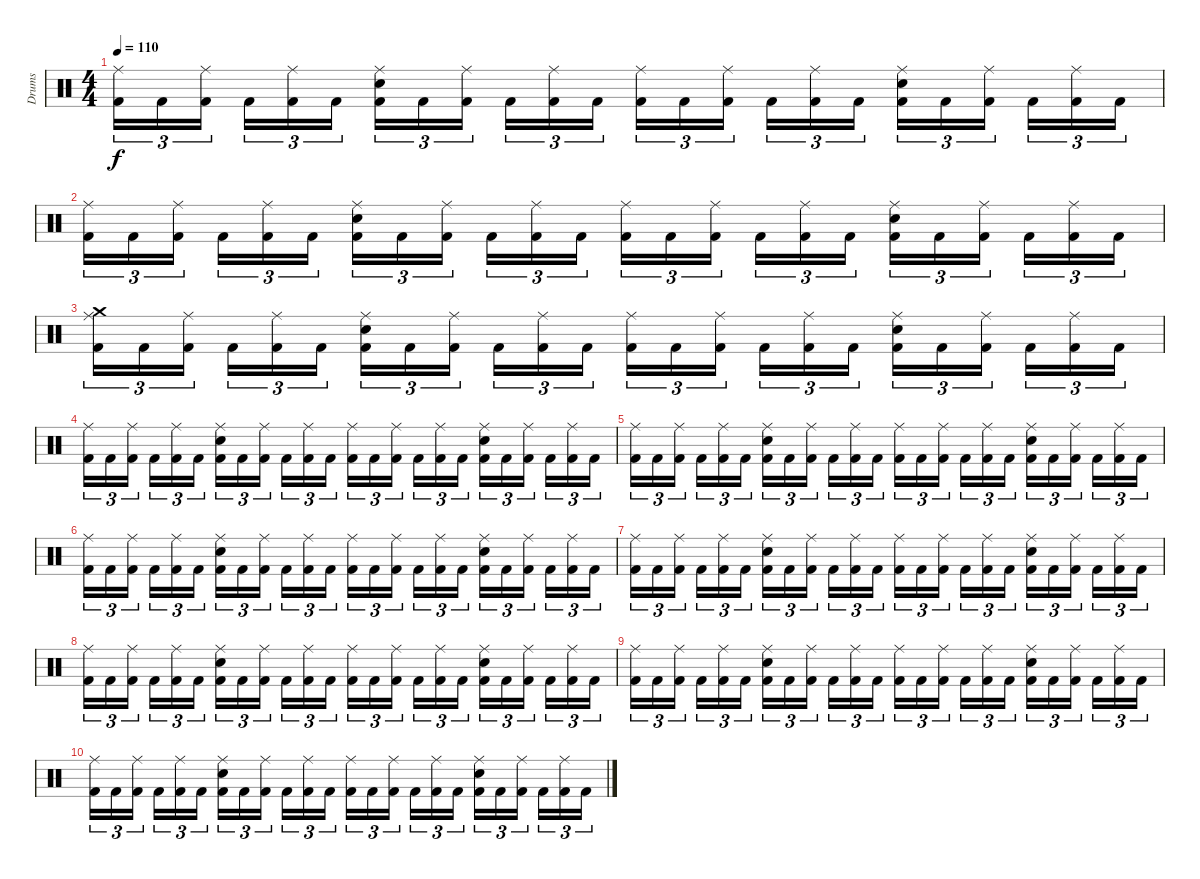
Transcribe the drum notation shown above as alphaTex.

\track ("Drums" "Drums") {instrument percussion}
\staff {score}
\articulation defaults
\ts (4 4)
\tempo 110
\clef neutral
\ks c
("Kick (hit) 2" "Ride (middle)").16{tu (3 2) dy f volume 8} "Kick (hit) 2".16{tu (3 2)} ("Kick (hit) 2" "Ride (middle)").16{tu (3 2)} "Kick (hit) 2".16{tu (3 2)} ("Kick (hit) 2" "Ride (middle)").16{tu (3 2)} "Kick (hit) 2".16{tu (3 2)} ("Kick (hit) 2" "Snare (hit) 2" "Ride (middle)").16{tu (3 2)} "Kick (hit) 2".16{tu (3 2)} ("Kick (hit) 2" "Ride (middle)").16{tu (3 2)} "Kick (hit) 2".16{tu (3 2)} ("Kick (hit) 2" "Ride (middle)").16{tu (3 2)} "Kick (hit) 2".16{tu (3 2)} ("Kick (hit) 2" "Ride (middle)").16{tu (3 2)} "Kick (hit) 2".16{tu (3 2)} ("Kick (hit) 2" "Ride (middle)").16{tu (3 2)} "Kick (hit) 2".16{tu (3 2)} ("Kick (hit) 2" "Ride (middle)").16{tu (3 2)} "Kick (hit) 2".16{tu (3 2)} ("Kick (hit) 2" "Snare (hit) 2" "Ride (middle)").16{tu (3 2)} "Kick (hit) 2".16{tu (3 2)} ("Kick (hit) 2" "Ride (middle)").16{tu (3 2)} "Kick (hit) 2".16{tu (3 2)} ("Kick (hit) 2" "Ride (middle)").16{tu (3 2)} "Kick (hit) 2".16{tu (3 2)} |
("Kick (hit) 2" "Ride (middle)").16{tu (3 2)} "Kick (hit) 2".16{tu (3 2)} ("Kick (hit) 2" "Ride (middle)").16{tu (3 2)} "Kick (hit) 2".16{tu (3 2)} ("Kick (hit) 2" "Ride (middle)").16{tu (3 2)} "Kick (hit) 2".16{tu (3 2)} ("Kick (hit) 2" "Snare (hit) 2" "Ride (middle)").16{tu (3 2)} "Kick (hit) 2".16{tu (3 2)} ("Kick (hit) 2" "Ride (middle)").16{tu (3 2)} "Kick (hit) 2".16{tu (3 2)} ("Kick (hit) 2" "Ride (middle)").16{tu (3 2)} "Kick (hit) 2".16{tu (3 2)} ("Kick (hit) 2" "Ride (middle)").16{tu (3 2)} "Kick (hit) 2".16{tu (3 2)} ("Kick (hit) 2" "Ride (middle)").16{tu (3 2)} "Kick (hit) 2".16{tu (3 2)} ("Kick (hit) 2" "Ride (middle)").16{tu (3 2)} "Kick (hit) 2".16{tu (3 2)} ("Kick (hit) 2" "Snare (hit) 2" "Ride (middle)").16{tu (3 2)} "Kick (hit) 2".16{tu (3 2)} ("Kick (hit) 2" "Ride (middle)").16{tu (3 2)} "Kick (hit) 2".16{tu (3 2)} ("Kick (hit) 2" "Ride (middle)").16{tu (3 2)} "Kick (hit) 2".16{tu (3 2)} |
("Kick (hit) 2" "Ride (middle)" "Crash medium (hit)").16{tu (3 2) volume 6} "Kick (hit) 2".16{tu (3 2)} ("Kick (hit) 2" "Ride (middle)").16{tu (3 2)} "Kick (hit) 2".16{tu (3 2)} ("Kick (hit) 2" "Ride (middle)").16{tu (3 2)} "Kick (hit) 2".16{tu (3 2)} ("Kick (hit) 2" "Snare (hit) 2" "Ride (middle)").16{tu (3 2)} "Kick (hit) 2".16{tu (3 2)} ("Kick (hit) 2" "Ride (middle)").16{tu (3 2)} "Kick (hit) 2".16{tu (3 2)} ("Kick (hit) 2" "Ride (middle)").16{tu (3 2)} "Kick (hit) 2".16{tu (3 2)} ("Kick (hit) 2" "Ride (middle)").16{tu (3 2)} "Kick (hit) 2".16{tu (3 2)} ("Kick (hit) 2" "Ride (middle)").16{tu (3 2)} "Kick (hit) 2".16{tu (3 2)} ("Kick (hit) 2" "Ride (middle)").16{tu (3 2)} "Kick (hit) 2".16{tu (3 2)} ("Kick (hit) 2" "Snare (hit) 2" "Ride (middle)").16{tu (3 2)} "Kick (hit) 2".16{tu (3 2)} ("Kick (hit) 2" "Ride (middle)").16{tu (3 2)} "Kick (hit) 2".16{tu (3 2)} ("Kick (hit) 2" "Ride (middle)").16{tu (3 2)} "Kick (hit) 2".16{tu (3 2)} |
("Kick (hit) 2" "Ride (middle)").16{tu (3 2)} "Kick (hit) 2".16{tu (3 2)} ("Kick (hit) 2" "Ride (middle)").16{tu (3 2)} "Kick (hit) 2".16{tu (3 2)} ("Kick (hit) 2" "Ride (middle)").16{tu (3 2)} "Kick (hit) 2".16{tu (3 2)} ("Kick (hit) 2" "Snare (hit) 2" "Ride (middle)").16{tu (3 2)} "Kick (hit) 2".16{tu (3 2)} ("Kick (hit) 2" "Ride (middle)").16{tu (3 2)} "Kick (hit) 2".16{tu (3 2)} ("Kick (hit) 2" "Ride (middle)").16{tu (3 2)} "Kick (hit) 2".16{tu (3 2)} ("Kick (hit) 2" "Ride (middle)").16{tu (3 2)} "Kick (hit) 2".16{tu (3 2)} ("Kick (hit) 2" "Ride (middle)").16{tu (3 2)} "Kick (hit) 2".16{tu (3 2)} ("Kick (hit) 2" "Ride (middle)").16{tu (3 2)} "Kick (hit) 2".16{tu (3 2)} ("Kick (hit) 2" "Snare (hit) 2" "Ride (middle)").16{tu (3 2)} "Kick (hit) 2".16{tu (3 2)} ("Kick (hit) 2" "Ride (middle)").16{tu (3 2)} "Kick (hit) 2".16{tu (3 2)} ("Kick (hit) 2" "Ride (middle)").16{tu (3 2)} "Kick (hit) 2".16{tu (3 2)} |
("Kick (hit) 2" "Ride (middle)").16{tu (3 2) volume 4} "Kick (hit) 2".16{tu (3 2)} ("Kick (hit) 2" "Ride (middle)").16{tu (3 2)} "Kick (hit) 2".16{tu (3 2)} ("Kick (hit) 2" "Ride (middle)").16{tu (3 2)} "Kick (hit) 2".16{tu (3 2)} ("Kick (hit) 2" "Snare (hit) 2" "Ride (middle)").16{tu (3 2)} "Kick (hit) 2".16{tu (3 2)} ("Kick (hit) 2" "Ride (middle)").16{tu (3 2)} "Kick (hit) 2".16{tu (3 2)} ("Kick (hit) 2" "Ride (middle)").16{tu (3 2)} "Kick (hit) 2".16{tu (3 2)} ("Kick (hit) 2" "Ride (middle)").16{tu (3 2)} "Kick (hit) 2".16{tu (3 2)} ("Kick (hit) 2" "Ride (middle)").16{tu (3 2)} "Kick (hit) 2".16{tu (3 2)} ("Kick (hit) 2" "Ride (middle)").16{tu (3 2)} "Kick (hit) 2".16{tu (3 2)} ("Kick (hit) 2" "Snare (hit) 2" "Ride (middle)").16{tu (3 2)} "Kick (hit) 2".16{tu (3 2)} ("Kick (hit) 2" "Ride (middle)").16{tu (3 2)} "Kick (hit) 2".16{tu (3 2)} ("Kick (hit) 2" "Ride (middle)").16{tu (3 2)} "Kick (hit) 2".16{tu (3 2)} |
("Kick (hit) 2" "Ride (middle)").16{tu (3 2)} "Kick (hit) 2".16{tu (3 2)} ("Kick (hit) 2" "Ride (middle)").16{tu (3 2)} "Kick (hit) 2".16{tu (3 2)} ("Kick (hit) 2" "Ride (middle)").16{tu (3 2)} "Kick (hit) 2".16{tu (3 2)} ("Kick (hit) 2" "Snare (hit) 2" "Ride (middle)").16{tu (3 2)} "Kick (hit) 2".16{tu (3 2)} ("Kick (hit) 2" "Ride (middle)").16{tu (3 2)} "Kick (hit) 2".16{tu (3 2)} ("Kick (hit) 2" "Ride (middle)").16{tu (3 2)} "Kick (hit) 2".16{tu (3 2)} ("Kick (hit) 2" "Ride (middle)").16{tu (3 2)} "Kick (hit) 2".16{tu (3 2)} ("Kick (hit) 2" "Ride (middle)").16{tu (3 2)} "Kick (hit) 2".16{tu (3 2)} ("Kick (hit) 2" "Ride (middle)").16{tu (3 2)} "Kick (hit) 2".16{tu (3 2)} ("Kick (hit) 2" "Snare (hit) 2" "Ride (middle)").16{tu (3 2)} "Kick (hit) 2".16{tu (3 2)} ("Kick (hit) 2" "Ride (middle)").16{tu (3 2)} "Kick (hit) 2".16{tu (3 2)} ("Kick (hit) 2" "Ride (middle)").16{tu (3 2)} "Kick (hit) 2".16{tu (3 2)} |
("Kick (hit) 2" "Ride (middle)").16{tu (3 2) volume 2} "Kick (hit) 2".16{tu (3 2)} ("Kick (hit) 2" "Ride (middle)").16{tu (3 2)} "Kick (hit) 2".16{tu (3 2)} ("Kick (hit) 2" "Ride (middle)").16{tu (3 2)} "Kick (hit) 2".16{tu (3 2)} ("Kick (hit) 2" "Snare (hit) 2" "Ride (middle)").16{tu (3 2)} "Kick (hit) 2".16{tu (3 2)} ("Kick (hit) 2" "Ride (middle)").16{tu (3 2)} "Kick (hit) 2".16{tu (3 2)} ("Kick (hit) 2" "Ride (middle)").16{tu (3 2)} "Kick (hit) 2".16{tu (3 2)} ("Kick (hit) 2" "Ride (middle)").16{tu (3 2)} "Kick (hit) 2".16{tu (3 2)} ("Kick (hit) 2" "Ride (middle)").16{tu (3 2)} "Kick (hit) 2".16{tu (3 2)} ("Kick (hit) 2" "Ride (middle)").16{tu (3 2)} "Kick (hit) 2".16{tu (3 2)} ("Kick (hit) 2" "Snare (hit) 2" "Ride (middle)").16{tu (3 2)} "Kick (hit) 2".16{tu (3 2)} ("Kick (hit) 2" "Ride (middle)").16{tu (3 2)} "Kick (hit) 2".16{tu (3 2)} ("Kick (hit) 2" "Ride (middle)").16{tu (3 2)} "Kick (hit) 2".16{tu (3 2)} |
("Kick (hit) 2" "Ride (middle)").16{tu (3 2)} "Kick (hit) 2".16{tu (3 2)} ("Kick (hit) 2" "Ride (middle)").16{tu (3 2)} "Kick (hit) 2".16{tu (3 2)} ("Kick (hit) 2" "Ride (middle)").16{tu (3 2)} "Kick (hit) 2".16{tu (3 2)} ("Kick (hit) 2" "Snare (hit) 2" "Ride (middle)").16{tu (3 2)} "Kick (hit) 2".16{tu (3 2)} ("Kick (hit) 2" "Ride (middle)").16{tu (3 2)} "Kick (hit) 2".16{tu (3 2)} ("Kick (hit) 2" "Ride (middle)").16{tu (3 2)} "Kick (hit) 2".16{tu (3 2)} ("Kick (hit) 2" "Ride (middle)").16{tu (3 2)} "Kick (hit) 2".16{tu (3 2)} ("Kick (hit) 2" "Ride (middle)").16{tu (3 2)} "Kick (hit) 2".16{tu (3 2)} ("Kick (hit) 2" "Ride (middle)").16{tu (3 2)} "Kick (hit) 2".16{tu (3 2)} ("Kick (hit) 2" "Snare (hit) 2" "Ride (middle)").16{tu (3 2)} "Kick (hit) 2".16{tu (3 2)} ("Kick (hit) 2" "Ride (middle)").16{tu (3 2)} "Kick (hit) 2".16{tu (3 2)} ("Kick (hit) 2" "Ride (middle)").16{tu (3 2)} "Kick (hit) 2".16{tu (3 2)} |
("Kick (hit) 2" "Ride (middle)").16{tu (3 2) volume 0} "Kick (hit) 2".16{tu (3 2)} ("Kick (hit) 2" "Ride (middle)").16{tu (3 2)} "Kick (hit) 2".16{tu (3 2)} ("Kick (hit) 2" "Ride (middle)").16{tu (3 2)} "Kick (hit) 2".16{tu (3 2)} ("Kick (hit) 2" "Snare (hit) 2" "Ride (middle)").16{tu (3 2)} "Kick (hit) 2".16{tu (3 2)} ("Kick (hit) 2" "Ride (middle)").16{tu (3 2)} "Kick (hit) 2".16{tu (3 2)} ("Kick (hit) 2" "Ride (middle)").16{tu (3 2)} "Kick (hit) 2".16{tu (3 2)} ("Kick (hit) 2" "Ride (middle)").16{tu (3 2)} "Kick (hit) 2".16{tu (3 2)} ("Kick (hit) 2" "Ride (middle)").16{tu (3 2)} "Kick (hit) 2".16{tu (3 2)} ("Kick (hit) 2" "Ride (middle)").16{tu (3 2)} "Kick (hit) 2".16{tu (3 2)} ("Kick (hit) 2" "Snare (hit) 2" "Ride (middle)").16{tu (3 2)} "Kick (hit) 2".16{tu (3 2)} ("Kick (hit) 2" "Ride (middle)").16{tu (3 2)} "Kick (hit) 2".16{tu (3 2)} ("Kick (hit) 2" "Ride (middle)").16{tu (3 2)} "Kick (hit) 2".16{tu (3 2)} |
("Kick (hit) 2" "Ride (middle)").16{tu (3 2)} "Kick (hit) 2".16{tu (3 2)} ("Kick (hit) 2" "Ride (middle)").16{tu (3 2)} "Kick (hit) 2".16{tu (3 2)} ("Kick (hit) 2" "Ride (middle)").16{tu (3 2)} "Kick (hit) 2".16{tu (3 2)} ("Kick (hit) 2" "Snare (hit) 2" "Ride (middle)").16{tu (3 2)} "Kick (hit) 2".16{tu (3 2)} ("Kick (hit) 2" "Ride (middle)").16{tu (3 2)} "Kick (hit) 2".16{tu (3 2)} ("Kick (hit) 2" "Ride (middle)").16{tu (3 2)} "Kick (hit) 2".16{tu (3 2)} ("Kick (hit) 2" "Ride (middle)").16{tu (3 2)} "Kick (hit) 2".16{tu (3 2)} ("Kick (hit) 2" "Ride (middle)").16{tu (3 2)} "Kick (hit) 2".16{tu (3 2)} ("Kick (hit) 2" "Ride (middle)").16{tu (3 2)} "Kick (hit) 2".16{tu (3 2)} ("Kick (hit) 2" "Snare (hit) 2" "Ride (middle)").16{tu (3 2)} "Kick (hit) 2".16{tu (3 2)} ("Kick (hit) 2" "Ride (middle)").16{tu (3 2)} "Kick (hit) 2".16{tu (3 2)} ("Kick (hit) 2" "Ride (middle)").16{tu (3 2)} "Kick (hit) 2".16{tu (3 2)}
